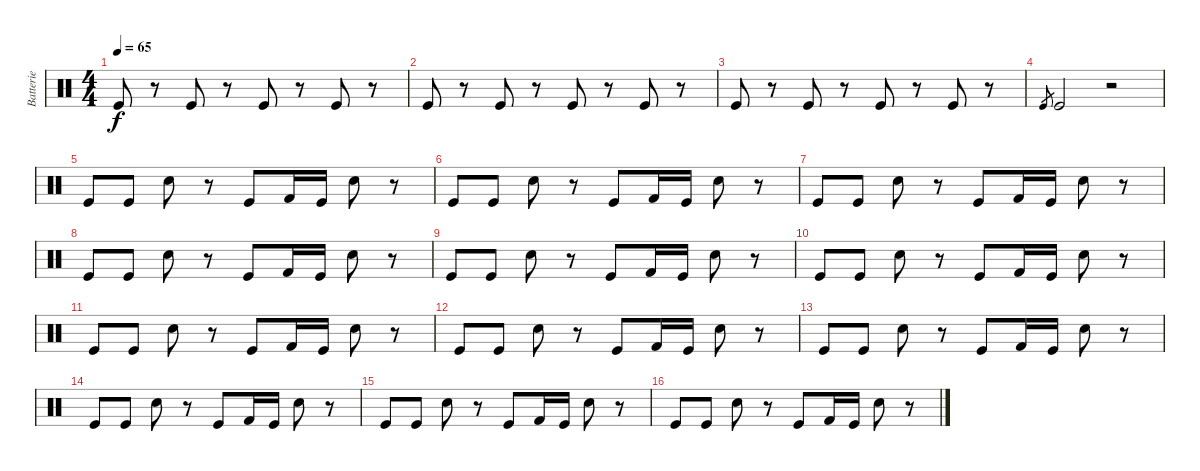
\track ("Batterie" "Batterie") {instrument percussion}
\staff {score}
\articulation defaults
\ts (4 4)
\tempo 65
\clef neutral
\ks c "Kick (hit)".8{dy f}
r.8 "Kick (hit)".8 r.8 "Kick (hit)".8 r.8 "Kick (hit)".8 r.8 |
"Kick (hit)".8 r.8 "Kick (hit)".8 r.8 "Kick (hit)".8 r.8 "Kick (hit)".8 r.8 |
"Kick (hit)".8 r.8 "Kick (hit)".8 r.8 "Kick (hit)".8 r.8 "Kick (hit)".8 r.8 |
"Kick (hit)".8{gr} "Kick (hit)".2 r.2 |
"Kick (hit)".8 "Kick (hit)".8 "Electric Snare (hit)".8 r.8 "Kick (hit)".8 "Kick (hit) 2".16 "Kick (hit)".16 "Electric Snare (hit)".8 r.8 |
"Kick (hit)".8 "Kick (hit)".8 "Electric Snare (hit)".8 r.8 "Kick (hit)".8 "Kick (hit) 2".16 "Kick (hit)".16 "Electric Snare (hit)".8 r.8 |
"Kick (hit)".8 "Kick (hit)".8 "Electric Snare (hit)".8 r.8 "Kick (hit)".8 "Kick (hit) 2".16 "Kick (hit)".16 "Electric Snare (hit)".8 r.8 |
"Kick (hit)".8 "Kick (hit)".8 "Electric Snare (hit)".8 r.8 "Kick (hit)".8 "Kick (hit) 2".16 "Kick (hit)".16 "Electric Snare (hit)".8 r.8 |
"Kick (hit)".8 "Kick (hit)".8 "Electric Snare (hit)".8 r.8 "Kick (hit)".8 "Kick (hit) 2".16 "Kick (hit)".16 "Electric Snare (hit)".8 r.8 |
"Kick (hit)".8 "Kick (hit)".8 "Electric Snare (hit)".8 r.8 "Kick (hit)".8 "Kick (hit) 2".16 "Kick (hit)".16 "Electric Snare (hit)".8 r.8 |
"Kick (hit)".8 "Kick (hit)".8 "Electric Snare (hit)".8 r.8 "Kick (hit)".8 "Kick (hit) 2".16 "Kick (hit)".16 "Electric Snare (hit)".8 r.8 |
"Kick (hit)".8 "Kick (hit)".8 "Electric Snare (hit)".8 r.8 "Kick (hit)".8 "Kick (hit) 2".16 "Kick (hit)".16 "Electric Snare (hit)".8 r.8 |
"Kick (hit)".8 "Kick (hit)".8 "Electric Snare (hit)".8 r.8 "Kick (hit)".8 "Kick (hit) 2".16 "Kick (hit)".16 "Electric Snare (hit)".8 r.8 |
"Kick (hit)".8 "Kick (hit)".8 "Electric Snare (hit)".8 r.8 "Kick (hit)".8 "Kick (hit) 2".16 "Kick (hit)".16 "Electric Snare (hit)".8 r.8 |
"Kick (hit)".8 "Kick (hit)".8 "Electric Snare (hit)".8 r.8 "Kick (hit)".8 "Kick (hit) 2".16 "Kick (hit)".16 "Electric Snare (hit)".8 r.8 |
"Kick (hit)".8 "Kick (hit)".8 "Electric Snare (hit)".8 r.8 "Kick (hit)".8 "Kick (hit) 2".16 "Kick (hit)".16 "Electric Snare (hit)".8 r.8
